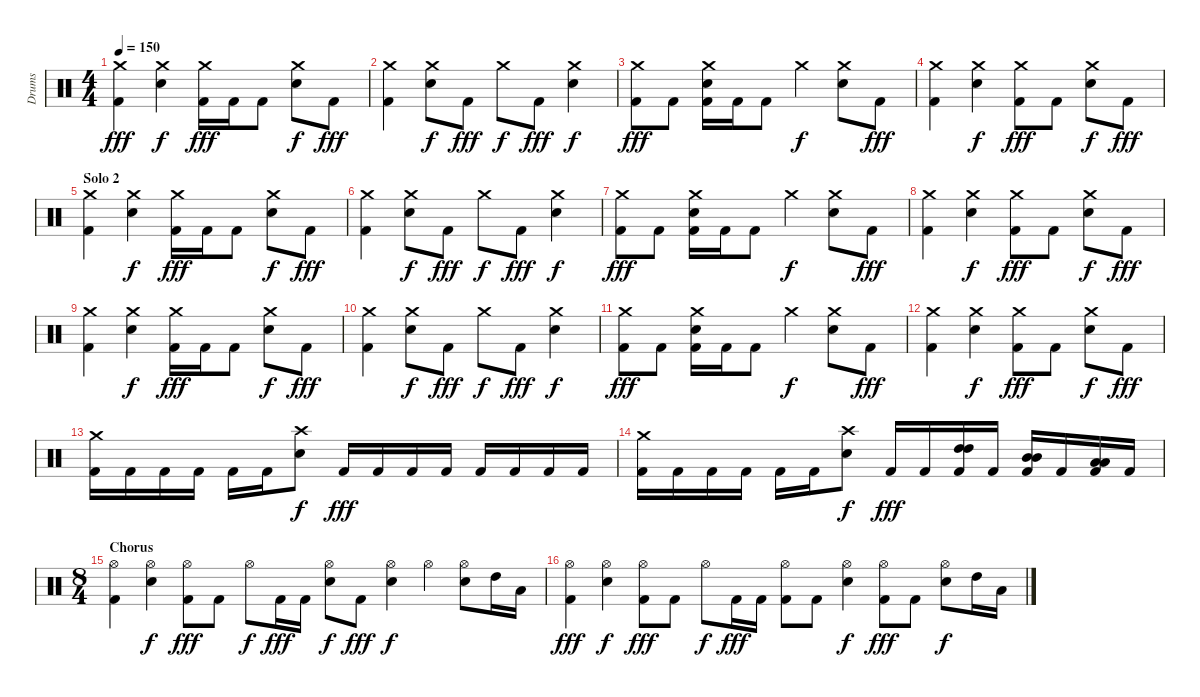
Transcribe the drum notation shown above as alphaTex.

\track ("Drums" "Drums") {instrument percussion}
\staff {score}
\articulation defaults
\ts (4 4)
\tempo 150
\clef neutral
\ks c
("Crash medium (hit)" "Kick (hit) 2").4{dy fff} ("Crash medium (hit)" "Electric Snare (hit)").4{dy f} ("Crash medium (hit)" "Kick (hit) 2").16{dy fff} "Kick (hit) 2".16 "Kick (hit) 2".8 ("Crash medium (hit)" "Electric Snare (hit)").8{dy f} "Kick (hit) 2".8{dy fff} |
("Crash medium (hit)" "Kick (hit) 2").4 ("Crash medium (hit)" "Electric Snare (hit)").8{dy f} "Kick (hit) 2".8{dy fff} "Crash medium (hit)".8{dy f} "Kick (hit) 2".8{dy fff} ("Crash medium (hit)" "Electric Snare (hit)").4{dy f} |
("Crash medium (hit)" "Kick (hit) 2").8{dy fff} "Kick (hit) 2".8 ("Crash medium (hit)" "Electric Snare (hit)" "Kick (hit) 2").16 "Kick (hit) 2".16 "Kick (hit) 2".8 "Crash medium (hit)".4{dy f} ("Crash medium (hit)" "Electric Snare (hit)").8 "Kick (hit) 2".8{dy fff} |
("Crash medium (hit)" "Kick (hit) 2").4 ("Crash medium (hit)" "Electric Snare (hit)").4{dy f} ("Crash medium (hit)" "Kick (hit) 2").8{dy fff} "Kick (hit) 2".8 ("Crash medium (hit)" "Electric Snare (hit)").8{dy f} "Kick (hit) 2".8{dy fff} |
\section ("" "Solo 2")
("Crash medium (hit)" "Kick (hit) 2").4 ("Crash medium (hit)" "Electric Snare (hit)").4{dy f} ("Crash medium (hit)" "Kick (hit) 2").16{dy fff} "Kick (hit) 2".16 "Kick (hit) 2".8 ("Crash medium (hit)" "Electric Snare (hit)").8{dy f} "Kick (hit) 2".8{dy fff} |
("Crash medium (hit)" "Kick (hit) 2").4 ("Crash medium (hit)" "Electric Snare (hit)").8{dy f} "Kick (hit) 2".8{dy fff} "Crash medium (hit)".8{dy f} "Kick (hit) 2".8{dy fff} ("Crash medium (hit)" "Electric Snare (hit)").4{dy f} |
("Crash medium (hit)" "Kick (hit) 2").8{dy fff} "Kick (hit) 2".8 ("Crash medium (hit)" "Electric Snare (hit)" "Kick (hit) 2").16 "Kick (hit) 2".16 "Kick (hit) 2".8 "Crash medium (hit)".4{dy f} ("Crash medium (hit)" "Electric Snare (hit)").8 "Kick (hit) 2".8{dy fff} |
("Crash medium (hit)" "Kick (hit) 2").4 ("Crash medium (hit)" "Electric Snare (hit)").4{dy f} ("Crash medium (hit)" "Kick (hit) 2").8{dy fff} "Kick (hit) 2".8 ("Crash medium (hit)" "Electric Snare (hit)").8{dy f} "Kick (hit) 2".8{dy fff} |
("Crash medium (hit)" "Kick (hit) 2").4 ("Crash medium (hit)" "Electric Snare (hit)").4{dy f} ("Crash medium (hit)" "Kick (hit) 2").16{dy fff} "Kick (hit) 2".16 "Kick (hit) 2".8 ("Crash medium (hit)" "Electric Snare (hit)").8{dy f} "Kick (hit) 2".8{dy fff} |
("Crash medium (hit)" "Kick (hit) 2").4 ("Crash medium (hit)" "Electric Snare (hit)").8{dy f} "Kick (hit) 2".8{dy fff} "Crash medium (hit)".8{dy f} "Kick (hit) 2".8{dy fff} ("Crash medium (hit)" "Electric Snare (hit)").4{dy f} |
("Crash medium (hit)" "Kick (hit) 2").8{dy fff} "Kick (hit) 2".8 ("Crash medium (hit)" "Electric Snare (hit)" "Kick (hit) 2").16 "Kick (hit) 2".16 "Kick (hit) 2".8 "Crash medium (hit)".4{dy f} ("Crash medium (hit)" "Electric Snare (hit)").8 "Kick (hit) 2".8{dy fff} |
("Crash medium (hit)" "Kick (hit) 2").4 ("Crash medium (hit)" "Electric Snare (hit)").4{dy f} ("Crash medium (hit)" "Kick (hit) 2").8{dy fff} "Kick (hit) 2".8 ("Crash medium (hit)" "Electric Snare (hit)").8{dy f} "Kick (hit) 2".8{dy fff} |
("Crash medium (hit)" "Kick (hit) 2").16 "Kick (hit) 2".16 "Kick (hit) 2".16 "Kick (hit) 2".16 "Kick (hit) 2".16 "Kick (hit) 2".16 ("Crash high (hit)" "Electric Snare (hit)").8{dy f} "Kick (hit) 2".16{dy fff} "Kick (hit) 2".16 "Kick (hit) 2".16 "Kick (hit) 2".16 "Kick (hit) 2".16 "Kick (hit) 2".16 "Kick (hit) 2".16 "Kick (hit) 2".16 |
("Crash medium (hit)" "Kick (hit) 2").16 "Kick (hit) 2".16 "Kick (hit) 2".16 "Kick (hit) 2".16 "Kick (hit) 2".16 "Kick (hit) 2".16 ("Crash high (hit)" "Electric Snare (hit)").8{dy f} "Kick (hit) 2".16{dy fff} "Kick (hit) 2".16 ("High Tom (hit)" "High Tom (hit)" "Kick (hit) 2").16{bd 120} "Kick (hit) 2".16 ("Mid Tom (hit)" "Mid Tom (hit)" "Kick (hit) 2").16{bd 120} "Kick (hit) 2".16 ("Low Tom (hit)" "Low Tom (hit)" "Kick (hit) 2").16{bd 120} "Kick (hit) 2".16 |
\ts (8 4)
\section ("" "Chorus")
("Hi-Hat (open)" "Kick (hit) 2").4 ("Hi-Hat (open)" "Electric Snare (hit)").4{dy f} ("Hi-Hat (open)" "Kick (hit) 2").8{dy fff} "Kick (hit) 2".8 "Hi-Hat (open)".8{dy f} "Kick (hit) 2".16{dy fff} "Kick (hit) 2".16 ("Hi-Hat (open)" "Electric Snare (hit)").8{dy f} "Kick (hit) 2".8{dy fff} ("Hi-Hat (open)" "Electric Snare (hit)").4{dy f} "Hi-Hat (open)".4 ("Hi-Hat (open)" "Electric Snare (hit)").8 "High Tom (hit)".16 "Low Tom (hit)".16 |
("Hi-Hat (open)" "Kick (hit) 2").4{dy fff} ("Hi-Hat (open)" "Electric Snare (hit)").4{dy f} ("Hi-Hat (open)" "Kick (hit) 2").8{dy fff} "Kick (hit) 2".8 "Hi-Hat (open)".8{dy f} "Kick (hit) 2".16{dy fff} "Kick (hit) 2".16 ("Hi-Hat (open)" "Kick (hit) 2").8 "Kick (hit) 2".8 ("Hi-Hat (open)" "Electric Snare (hit)").4{dy f} ("Hi-Hat (open)" "Kick (hit) 2").8{dy fff} "Kick (hit) 2".8 ("Hi-Hat (open)" "Electric Snare (hit)").8{dy f} "High Tom (hit)".16 "Low Tom (hit)".16
